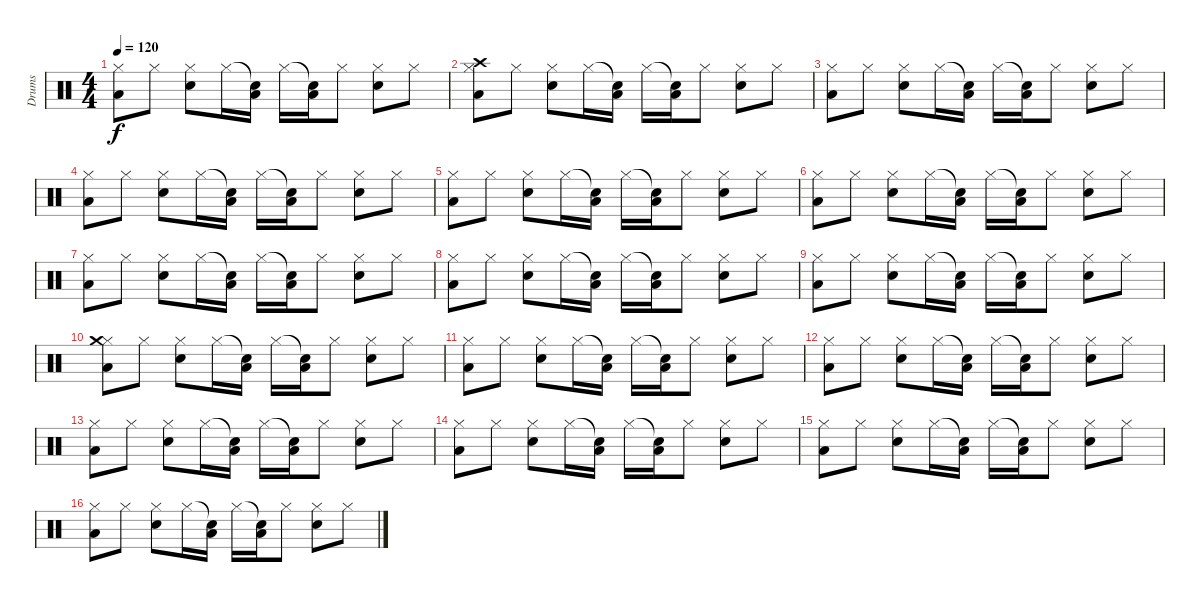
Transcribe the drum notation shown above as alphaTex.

\track ("Drums" "Drums") {instrument percussion}
\staff {score}
\articulation defaults
\ts (4 4)
\tempo 120
\clef neutral
\ks c
("Hi-Hat (closed)" "Low Tom (hit)").8{dy f} "Hi-Hat (closed)".8 ("Hi-Hat (closed)" "Snare (hit) 2").8 "Hi-Hat (closed)".16 ("Snare (hit)"{t} "Low Tom (hit)").16 "Hi-Hat (closed)".16 ("Snare (hit)"{t} "Low Tom (hit)").16 "Hi-Hat (closed)".8 ("Hi-Hat (closed)" "Snare (hit) 2").8 "Hi-Hat (closed)".8 |
("Hi-Hat (closed)" "Low Tom (hit)" "Crash high (hit)").8 "Hi-Hat (closed)".8 ("Hi-Hat (closed)" "Snare (hit) 2").8 "Hi-Hat (closed)".16 ("Snare (hit)"{t} "Low Tom (hit)").16 "Hi-Hat (closed)".16 ("Snare (hit)"{t} "Low Tom (hit)").16 "Hi-Hat (closed)".8 ("Hi-Hat (closed)" "Snare (hit) 2").8 "Hi-Hat (closed)".8 |
("Hi-Hat (closed)" "Low Tom (hit)").8 "Hi-Hat (closed)".8 ("Hi-Hat (closed)" "Snare (hit) 2").8 "Hi-Hat (closed)".16 ("Snare (hit)"{t} "Low Tom (hit)").16 "Hi-Hat (closed)".16 ("Snare (hit)"{t} "Low Tom (hit)").16 "Hi-Hat (closed)".8 ("Hi-Hat (closed)" "Snare (hit) 2").8 "Hi-Hat (closed)".8 |
("Hi-Hat (closed)" "Low Tom (hit)").8 "Hi-Hat (closed)".8 ("Hi-Hat (closed)" "Snare (hit) 2").8 "Hi-Hat (closed)".16 ("Snare (hit)"{t} "Low Tom (hit)").16 "Hi-Hat (closed)".16 ("Snare (hit)"{t} "Low Tom (hit)").16 "Hi-Hat (closed)".8 ("Hi-Hat (closed)" "Snare (hit) 2").8 "Hi-Hat (closed)".8 |
("Hi-Hat (closed)" "Low Tom (hit)").8 "Hi-Hat (closed)".8 ("Hi-Hat (closed)" "Snare (hit) 2").8 "Hi-Hat (closed)".16 ("Snare (hit)"{t} "Low Tom (hit)").16 "Hi-Hat (closed)".16 ("Snare (hit)"{t} "Low Tom (hit)").16 "Hi-Hat (closed)".8 ("Hi-Hat (closed)" "Snare (hit) 2").8 "Hi-Hat (closed)".8 |
("Hi-Hat (closed)" "Low Tom (hit)").8 "Hi-Hat (closed)".8 ("Hi-Hat (closed)" "Snare (hit) 2").8 "Hi-Hat (closed)".16 ("Snare (hit)"{t} "Low Tom (hit)").16 "Hi-Hat (closed)".16 ("Snare (hit)"{t} "Low Tom (hit)").16 "Hi-Hat (closed)".8 ("Hi-Hat (closed)" "Snare (hit) 2").8 "Hi-Hat (closed)".8 |
("Hi-Hat (closed)" "Low Tom (hit)").8 "Hi-Hat (closed)".8 ("Hi-Hat (closed)" "Snare (hit) 2").8 "Hi-Hat (closed)".16 ("Snare (hit)"{t} "Low Tom (hit)").16 "Hi-Hat (closed)".16 ("Snare (hit)"{t} "Low Tom (hit)").16 "Hi-Hat (closed)".8 ("Hi-Hat (closed)" "Snare (hit) 2").8 "Hi-Hat (closed)".8 |
("Hi-Hat (closed)" "Low Tom (hit)").8 "Hi-Hat (closed)".8 ("Hi-Hat (closed)" "Snare (hit) 2").8 "Hi-Hat (closed)".16 ("Snare (hit)"{t} "Low Tom (hit)").16 "Hi-Hat (closed)".16 ("Snare (hit)"{t} "Low Tom (hit)").16 "Hi-Hat (closed)".8 ("Hi-Hat (closed)" "Snare (hit) 2").8 "Hi-Hat (closed)".8 |
("Hi-Hat (closed)" "Low Tom (hit)").8 "Hi-Hat (closed)".8 ("Hi-Hat (closed)" "Snare (hit) 2").8 "Hi-Hat (closed)".16 ("Snare (hit)"{t} "Low Tom (hit)").16 "Hi-Hat (closed)".16 ("Snare (hit)"{t} "Low Tom (hit)").16 "Hi-Hat (closed)".8 ("Hi-Hat (closed)" "Snare (hit) 2").8 "Hi-Hat (closed)".8 |
("Hi-Hat (closed)" "Low Tom (hit)" "Crash medium (hit)").8 "Hi-Hat (closed)".8 ("Hi-Hat (closed)" "Snare (hit) 2").8 "Hi-Hat (closed)".16 ("Snare (hit)"{t} "Low Tom (hit)").16 "Hi-Hat (closed)".16 ("Snare (hit)"{t} "Low Tom (hit)").16 "Hi-Hat (closed)".8 ("Hi-Hat (closed)" "Snare (hit) 2").8 "Hi-Hat (closed)".8 |
("Hi-Hat (closed)" "Low Tom (hit)").8 "Hi-Hat (closed)".8 ("Hi-Hat (closed)" "Snare (hit) 2").8 "Hi-Hat (closed)".16 ("Snare (hit)"{t} "Low Tom (hit)").16 "Hi-Hat (closed)".16 ("Snare (hit)"{t} "Low Tom (hit)").16 "Hi-Hat (closed)".8 ("Hi-Hat (closed)" "Snare (hit) 2").8 "Hi-Hat (closed)".8 |
("Hi-Hat (closed)" "Low Tom (hit)").8 "Hi-Hat (closed)".8 ("Hi-Hat (closed)" "Snare (hit) 2").8 "Hi-Hat (closed)".16 ("Snare (hit)"{t} "Low Tom (hit)").16 "Hi-Hat (closed)".16 ("Snare (hit)"{t} "Low Tom (hit)").16 "Hi-Hat (closed)".8 ("Hi-Hat (closed)" "Snare (hit) 2").8 "Hi-Hat (closed)".8 |
("Hi-Hat (closed)" "Low Tom (hit)").8 "Hi-Hat (closed)".8 ("Hi-Hat (closed)" "Snare (hit) 2").8 "Hi-Hat (closed)".16 ("Snare (hit)"{t} "Low Tom (hit)").16 "Hi-Hat (closed)".16 ("Snare (hit)"{t} "Low Tom (hit)").16 "Hi-Hat (closed)".8 ("Hi-Hat (closed)" "Snare (hit) 2").8 "Hi-Hat (closed)".8 |
("Hi-Hat (closed)" "Low Tom (hit)").8 "Hi-Hat (closed)".8 ("Hi-Hat (closed)" "Snare (hit) 2").8 "Hi-Hat (closed)".16 ("Snare (hit)"{t} "Low Tom (hit)").16 "Hi-Hat (closed)".16 ("Snare (hit)"{t} "Low Tom (hit)").16 "Hi-Hat (closed)".8 ("Hi-Hat (closed)" "Snare (hit) 2").8 "Hi-Hat (closed)".8 |
("Hi-Hat (closed)" "Low Tom (hit)").8 "Hi-Hat (closed)".8 ("Hi-Hat (closed)" "Snare (hit) 2").8 "Hi-Hat (closed)".16 ("Snare (hit)"{t} "Low Tom (hit)").16 "Hi-Hat (closed)".16 ("Snare (hit)"{t} "Low Tom (hit)").16 "Hi-Hat (closed)".8 ("Hi-Hat (closed)" "Snare (hit) 2").8 "Hi-Hat (closed)".8 |
("Hi-Hat (closed)" "Low Tom (hit)").8 "Hi-Hat (closed)".8 ("Hi-Hat (closed)" "Snare (hit) 2").8 "Hi-Hat (closed)".16 ("Snare (hit)"{t} "Low Tom (hit)").16 "Hi-Hat (closed)".16 ("Snare (hit)"{t} "Low Tom (hit)").16 "Hi-Hat (closed)".8 ("Hi-Hat (closed)" "Snare (hit) 2").8 "Hi-Hat (closed)".8
